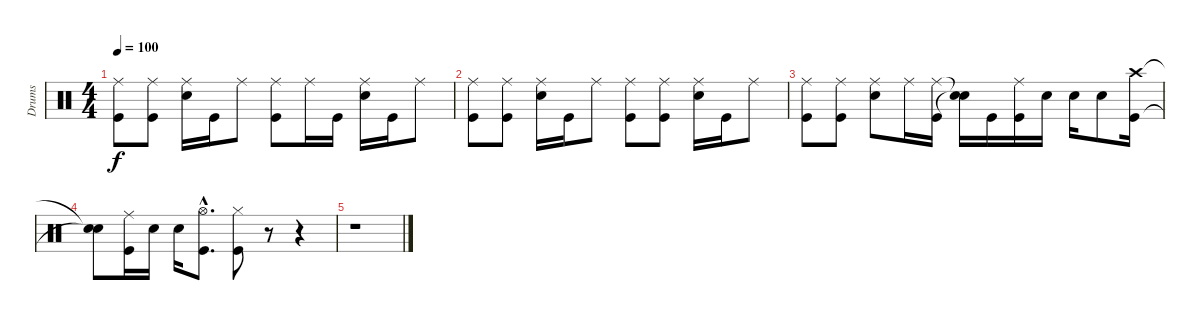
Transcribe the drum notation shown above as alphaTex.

\track ("Drums" "Drums") {instrument percussion}
\staff {score}
\articulation defaults
\ts (4 4)
\tempo 100
\clef neutral
\ks c
("Ride (middle)" "Kick (hit)").8{dy f} ("Ride (middle)" "Kick (hit)").8 ("Ride (middle)" "Snare (hit) 2").16 "Kick (hit)".16 "Ride (middle)".8 ("Ride (middle)" "Kick (hit)").8 "Ride (middle)".16 "Kick (hit)".16 ("Ride (middle)" "Snare (hit) 2").16 "Kick (hit)".16 "Ride (middle)".8 |
("Ride (middle)" "Kick (hit)").8 ("Ride (middle)" "Kick (hit)").8 ("Ride (middle)" "Snare (hit) 2").16 "Kick (hit)".16 "Ride (middle)".8 ("Ride (middle)" "Kick (hit)").8 ("Ride (middle)" "Kick (hit)").8 ("Ride (middle)" "Snare (hit) 2").16 "Kick (hit)".16 "Ride (middle)".8 |
("Ride (middle)" "Kick (hit)").8 ("Ride (middle)" "Kick (hit)").8 ("Ride (middle)" "Snare (hit) 2").8 "Ride (middle)".16 ("Ride (middle)" "Kick (hit)").16 ("Snare (hit)"{t} "Snare (hit)"{t}).16 "Kick (hit)".16 ("Ride (middle)" "Kick (hit)").16 "Snare (hit) 2".16 "Snare (hit) 2".16 "Snare (hit) 2".8 ("Crash high (hit)" "Kick (hit)").16 |
("Snare (hit)"{t} "Snare (hit)"{t}).8 ("Ride (middle)" "Kick (hit)").16 "Snare (hit) 2".16 "Snare (hit) 2".16 ("Hi-Hat (open)"{hac} "Kick (hit)"{hac}).8{d} ("Hi-Hat (closed)" "Kick (hit)").8 r.8 r.4 |
r.1
